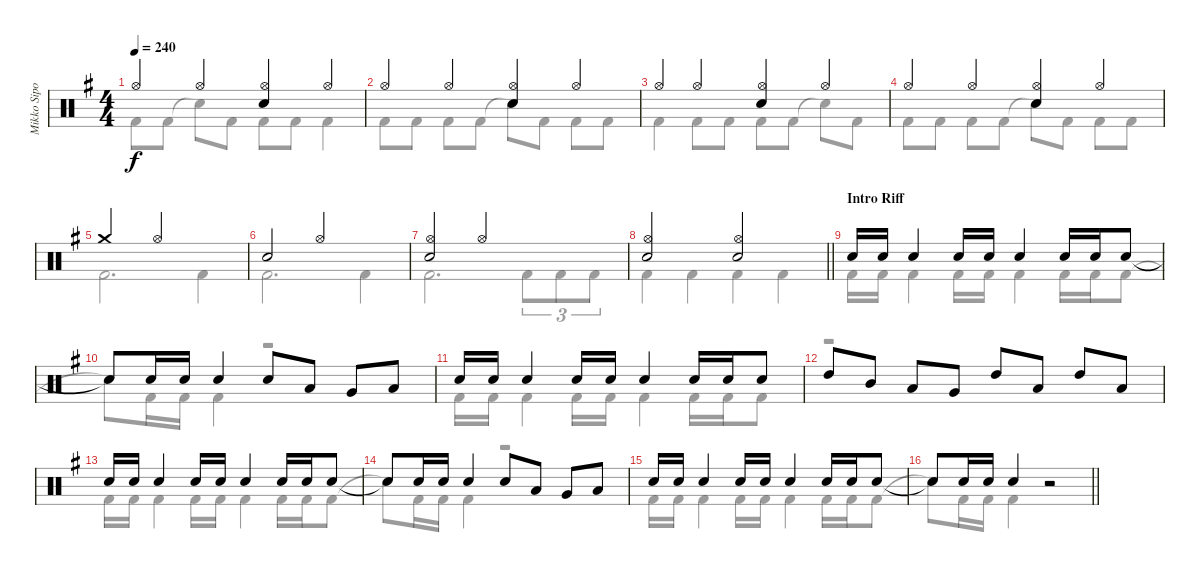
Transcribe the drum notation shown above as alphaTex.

\track ("Mikko Sipola (drums)" "Mikko Sipo") {instrument percussion}
\staff {score}
\articulation defaults
\voice
\ts (4 4)
\tempo 240
\clef neutral
\ks eminor "Hi-Hat (open)".4{dy f} "Hi-Hat (open)".4
("Electric Snare (hit)" "Hi-Hat (open)").4 "Hi-Hat (open)".4 |
"Hi-Hat (open)".4 "Hi-Hat (open)".4 ("Electric Snare (hit)" "Hi-Hat (open)").4 "Hi-Hat (open)".4 |
"Hi-Hat (open)".4 "Hi-Hat (open)".4 ("Electric Snare (hit)" "Hi-Hat (open)").4 "Hi-Hat (open)".4 |
"Hi-Hat (open)".4 "Hi-Hat (open)".4 ("Electric Snare (hit)" "Hi-Hat (open)").4 "Hi-Hat (open)".4 |
"Crash medium (hit)".2 "Hi-Hat (open)".2 |
"Electric Snare (hit)".2 "Hi-Hat (open)".2 |
("Electric Snare (hit)" "Hi-Hat (open)").2 "Hi-Hat (open)".2 |
\barLineRight lightlight
("Electric Snare (hit)" "Hi-Hat (open)").2 ("Electric Snare (hit)" "Hi-Hat (open)").2 |
\section ("" "Intro Riff")
"Electric Snare (hit)".16 "Electric Snare (hit)".16 "Electric Snare (hit)".4 "Electric Snare (hit)".16 "Electric Snare (hit)".16 "Electric Snare (hit)".4 "Electric Snare (hit)".16 "Electric Snare (hit)".16 "Electric Snare (hit)".8 |
"Snare (hit)"{t}.8 "Electric Snare (hit)".16 "Electric Snare (hit)".16 "Electric Snare (hit)".4 "Electric Snare (hit)".8 "Low Tom (hit)".8 "Very Low Tom (hit)".8 "Low Floor Tom (hit)".8 |
"Electric Snare (hit)".16 "Electric Snare (hit)".16 "Electric Snare (hit)".4 "Electric Snare (hit)".16 "Electric Snare (hit)".16 "Electric Snare (hit)".4 "Electric Snare (hit)".16 "Electric Snare (hit)".16 "Electric Snare (hit)".8 |
"High Tom (hit)".8 "Mid Tom (hit)".8 "Low Tom (hit)".8 "Very Low Tom (hit)".8 "High Tom (hit)".8 "Low Tom (hit)".8 "High Tom (hit)".8 "Low Tom (hit)".8 |
"Electric Snare (hit)".16 "Electric Snare (hit)".16 "Electric Snare (hit)".4 "Electric Snare (hit)".16 "Electric Snare (hit)".16 "Electric Snare (hit)".4 "Electric Snare (hit)".16 "Electric Snare (hit)".16 "Electric Snare (hit)".8 |
"Snare (hit)"{t}.8 "Electric Snare (hit)".16 "Electric Snare (hit)".16 "Electric Snare (hit)".4 "Electric Snare (hit)".8 "Low Tom (hit)".8 "Very Low Tom (hit)".8 "Low Floor Tom (hit)".8 |
"Electric Snare (hit)".16 "Electric Snare (hit)".16 "Electric Snare (hit)".4 "Electric Snare (hit)".16 "Electric Snare (hit)".16 "Electric Snare (hit)".4 "Electric Snare (hit)".16 "Electric Snare (hit)".16 "Electric Snare (hit)".8 |
\barLineRight lightlight "Snare (hit)"{t}.8 "Electric Snare (hit)".16 "Electric Snare (hit)".16 "Electric Snare (hit)".4
r.2
\voice
\clef neutral
\ottava regular
\simile none
\ks eminor "Kick (hit) 2".8{dy f} "Kick (hit) 2".8 "Snare (hit)"{t}.8 "Kick (hit) 2".8 "Kick (hit) 2".8 "Kick (hit) 2".8 "Kick (hit) 2".4
|
"Kick (hit) 2".8 "Kick (hit) 2".8 "Kick (hit) 2".8 "Kick (hit) 2".8 "Snare (hit)"{t}.8 "Kick (hit) 2".8 "Kick (hit) 2".8 "Kick (hit) 2".8 |
"Kick (hit) 2".4 "Kick (hit) 2".8 "Kick (hit) 2".8 "Kick (hit) 2".8 "Kick (hit) 2".8 "Snare (hit)"{t}.8 "Kick (hit) 2".8 |
"Kick (hit) 2".8 "Kick (hit) 2".8 "Kick (hit) 2".8 "Kick (hit) 2".8 "Snare (hit)"{t}.8 "Kick (hit) 2".8 "Kick (hit) 2".8 "Kick (hit) 2".8 |
"Kick (hit) 2".2{d} "Kick (hit) 2".4 |
"Kick (hit) 2".2{d} "Kick (hit) 2".4 |
"Kick (hit) 2".2{d} "Kick (hit) 2".8{tu (3 2)} "Kick (hit) 2".8{tu (3 2)} "Kick (hit) 2".8{tu (3 2)} |
\barLineRight lightlight "Kick (hit) 2".4 "Kick (hit) 2".4 "Kick (hit) 2".4 "Kick (hit) 2".4
|
"Kick (hit) 2".16 "Kick (hit) 2".16 "Kick (hit) 2".4 "Kick (hit) 2".16 "Kick (hit) 2".16 "Kick (hit) 2".4 "Kick (hit) 2".16 "Kick (hit) 2".16 "Kick (hit) 2".8 |
"Snare (hit)"{t}.8 "Kick (hit) 2".16 "Kick (hit) 2".16 "Kick (hit) 2".4 r.2 |
"Kick (hit) 2".16 "Kick (hit) 2".16 "Kick (hit) 2".4 "Kick (hit) 2".16 "Kick (hit) 2".16 "Kick (hit) 2".4 "Kick (hit) 2".16 "Kick (hit) 2".16 "Kick (hit) 2".8 |
r.1 |
"Kick (hit) 2".16 "Kick (hit) 2".16 "Kick (hit) 2".4 "Kick (hit) 2".16 "Kick (hit) 2".16 "Kick (hit) 2".4 "Kick (hit) 2".16 "Kick (hit) 2".16 "Kick (hit) 2".8 |
"Snare (hit)"{t}.8 "Kick (hit) 2".16 "Kick (hit) 2".16 "Kick (hit) 2".4 r.2 |
"Kick (hit) 2".16 "Kick (hit) 2".16 "Kick (hit) 2".4 "Kick (hit) 2".16 "Kick (hit) 2".16 "Kick (hit) 2".4 "Kick (hit) 2".16 "Kick (hit) 2".16 "Kick (hit) 2".8 |
\barLineRight lightlight "Snare (hit)"{t}.8 "Kick (hit) 2".16 "Kick (hit) 2".16 "Kick (hit) 2".4
r.2
